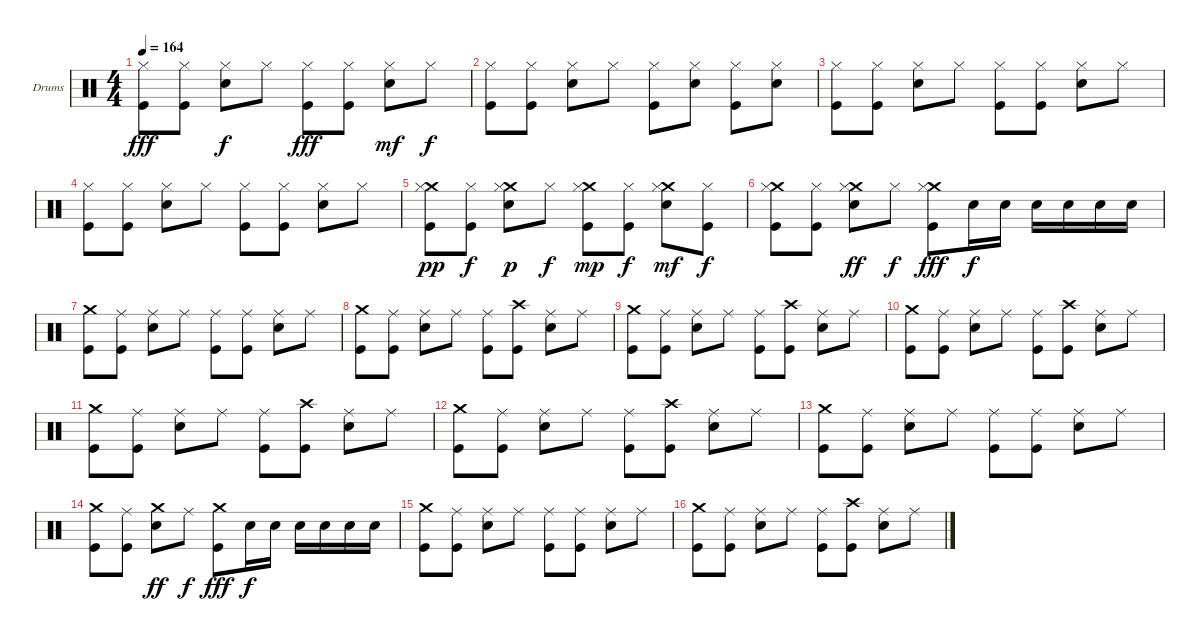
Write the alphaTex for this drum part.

\defaultSystemsLayout 4
\bracketExtendMode nobrackets
\firstSystemTrackNameOrientation horizontal
\otherSystemsTrackNameOrientation horizontal
\track ("Dave Abbruzzese" "Drums") {solo instrument percussion}
\staff {score}
\articulation defaults
\ts (4 4)
\tempo 164
\clef neutral
\ks c
("Kick (hit)" "Hi-Hat (closed)").8{dy fff} ("Kick (hit)" "Hi-Hat (closed)").8 ("Snare (hit) 2" "Hi-Hat (closed)").8{dy f} "Hi-Hat (closed)".8 ("Kick (hit)" "Hi-Hat (closed)").8{dy fff} ("Kick (hit)" "Hi-Hat (closed)").8 ("Snare (hit) 2" "Hi-Hat (closed)").8{dy mf} "Hi-Hat (closed)".8{dy f} |
("Kick (hit)" "Hi-Hat (closed)").8 ("Kick (hit)" "Hi-Hat (closed)").8 ("Snare (hit) 2" "Hi-Hat (closed)").8 "Hi-Hat (closed)".8 ("Kick (hit)" "Hi-Hat (closed)").8 ("Snare (hit) 2" "Hi-Hat (closed)").8 ("Kick (hit)" "Hi-Hat (closed)").8 ("Snare (hit) 2" "Hi-Hat (closed)").8 |
("Kick (hit)" "Hi-Hat (closed)").8 ("Kick (hit)" "Hi-Hat (closed)").8 ("Snare (hit) 2" "Hi-Hat (closed)").8 "Hi-Hat (closed)".8 ("Kick (hit)" "Hi-Hat (closed)").8 ("Kick (hit)" "Hi-Hat (closed)").8 ("Snare (hit) 2" "Hi-Hat (closed)").8 "Hi-Hat (closed)".8 |
("Kick (hit)" "Hi-Hat (closed)").8 ("Kick (hit)" "Hi-Hat (closed)").8 ("Snare (hit) 2" "Hi-Hat (closed)").8 "Hi-Hat (closed)".8 ("Kick (hit)" "Hi-Hat (closed)").8 ("Kick (hit)" "Hi-Hat (closed)").8 ("Snare (hit) 2" "Hi-Hat (closed)").8 "Hi-Hat (closed)".8 |
("Crash medium (hit)" "Kick (hit)" "Hi-Hat (closed)").8{dy pp} ("Kick (hit)" "Hi-Hat (closed)").8{dy f} ("Crash medium (hit)" "Snare (hit) 2" "Hi-Hat (closed)").8{dy p} "Hi-Hat (closed)".8{dy f} ("Crash medium (hit)" "Kick (hit)" "Hi-Hat (closed)").8{dy mp} ("Kick (hit)" "Hi-Hat (closed)").8{dy f} ("Crash medium (hit)" "Snare (hit) 2" "Hi-Hat (closed)").8{dy mf} ("Kick (hit)" "Hi-Hat (closed)").8{dy f} |
("Crash medium (hit)" "Kick (hit)" "Hi-Hat (closed)").8 ("Kick (hit)" "Hi-Hat (closed)").8 ("Crash medium (hit)" "Snare (hit) 2" "Hi-Hat (closed)").8{dy ff} "Hi-Hat (closed)".8{dy f} ("Crash medium (hit)" "Kick (hit)" "Hi-Hat (closed)").8{dy fff} "Snare (hit) 2".16{dy f} "Snare (hit) 2".16 "Snare (hit) 2".16 "Snare (hit) 2".16 "Snare (hit) 2".16 "Snare (hit) 2".16 |
("Kick (hit)" "Crash medium (hit)").8 ("Kick (hit)" "Ride (middle)").8 ("Snare (hit) 2" "Ride (middle)").8 "Ride (middle)".8 ("Kick (hit)" "Ride (middle)").8 ("Kick (hit)" "Ride (middle)").8 ("Snare (hit) 2" "Ride (middle)").8 "Ride (middle)".8 |
("Kick (hit)" "Crash medium (hit)").8 ("Kick (hit)" "Ride (middle)").8 ("Snare (hit) 2" "Ride (middle)").8 "Ride (middle)".8 ("Kick (hit)" "Ride (middle)").8 ("Kick (hit)" "Crash high (hit)").8 ("Snare (hit) 2" "Ride (middle)").8 "Ride (middle)".8 |
("Kick (hit)" "Crash medium (hit)").8 ("Kick (hit)" "Ride (middle)").8 ("Snare (hit) 2" "Ride (middle)").8 "Ride (middle)".8 ("Kick (hit)" "Ride (middle)").8 ("Kick (hit)" "Crash high (hit)").8 ("Snare (hit) 2" "Ride (middle)").8 "Ride (middle)".8 |
("Kick (hit)" "Crash medium (hit)").8 ("Kick (hit)" "Ride (middle)").8 ("Snare (hit) 2" "Ride (middle)").8 "Ride (middle)".8 ("Kick (hit)" "Ride (middle)").8 ("Kick (hit)" "Crash high (hit)").8 ("Snare (hit) 2" "Ride (middle)").8 "Ride (middle)".8 |
("Kick (hit)" "Crash medium (hit)").8 ("Kick (hit)" "Ride (middle)").8 ("Snare (hit) 2" "Ride (middle)").8 "Ride (middle)".8 ("Kick (hit)" "Ride (middle)").8 ("Kick (hit)" "Crash high (hit)").8 ("Snare (hit) 2" "Ride (middle)").8 "Ride (middle)".8 |
("Kick (hit)" "Crash medium (hit)").8 ("Kick (hit)" "Ride (middle)").8 ("Snare (hit) 2" "Ride (middle)").8 "Ride (middle)".8 ("Kick (hit)" "Ride (middle)").8 ("Kick (hit)" "Crash high (hit)").8 ("Snare (hit) 2" "Ride (middle)").8 "Ride (middle)".8 |
("Kick (hit)" "Crash medium (hit)").8 ("Kick (hit)" "Ride (middle)").8 ("Snare (hit) 2" "Ride (middle)").8 "Ride (middle)".8 ("Kick (hit)" "Ride (middle)").8 ("Kick (hit)" "Ride (middle)").8 ("Snare (hit) 2" "Ride (middle)").8 "Ride (middle)".8 |
("Crash medium (hit)" "Kick (hit)").8 ("Kick (hit)" "Ride (middle)").8 ("Crash medium (hit)" "Snare (hit) 2").8{dy ff} "Ride (middle)".8{dy f} ("Crash medium (hit)" "Kick (hit)").8{dy fff} "Snare (hit) 2".16{dy f} "Snare (hit) 2".16 "Snare (hit) 2".16 "Snare (hit) 2".16 "Snare (hit) 2".16 "Snare (hit) 2".16 |
("Kick (hit)" "Crash medium (hit)").8 ("Kick (hit)" "Ride (middle)").8 ("Snare (hit) 2" "Ride (middle)").8 "Ride (middle)".8 ("Kick (hit)" "Ride (middle)").8 ("Kick (hit)" "Ride (middle)").8 ("Snare (hit) 2" "Ride (middle)").8 "Ride (middle)".8 |
("Kick (hit)" "Crash medium (hit)").8 ("Kick (hit)" "Ride (middle)").8 ("Snare (hit) 2" "Ride (middle)").8 "Ride (middle)".8 ("Kick (hit)" "Ride (middle)").8 ("Kick (hit)" "Crash high (hit)").8 ("Snare (hit) 2" "Ride (middle)").8 "Ride (middle)".8
